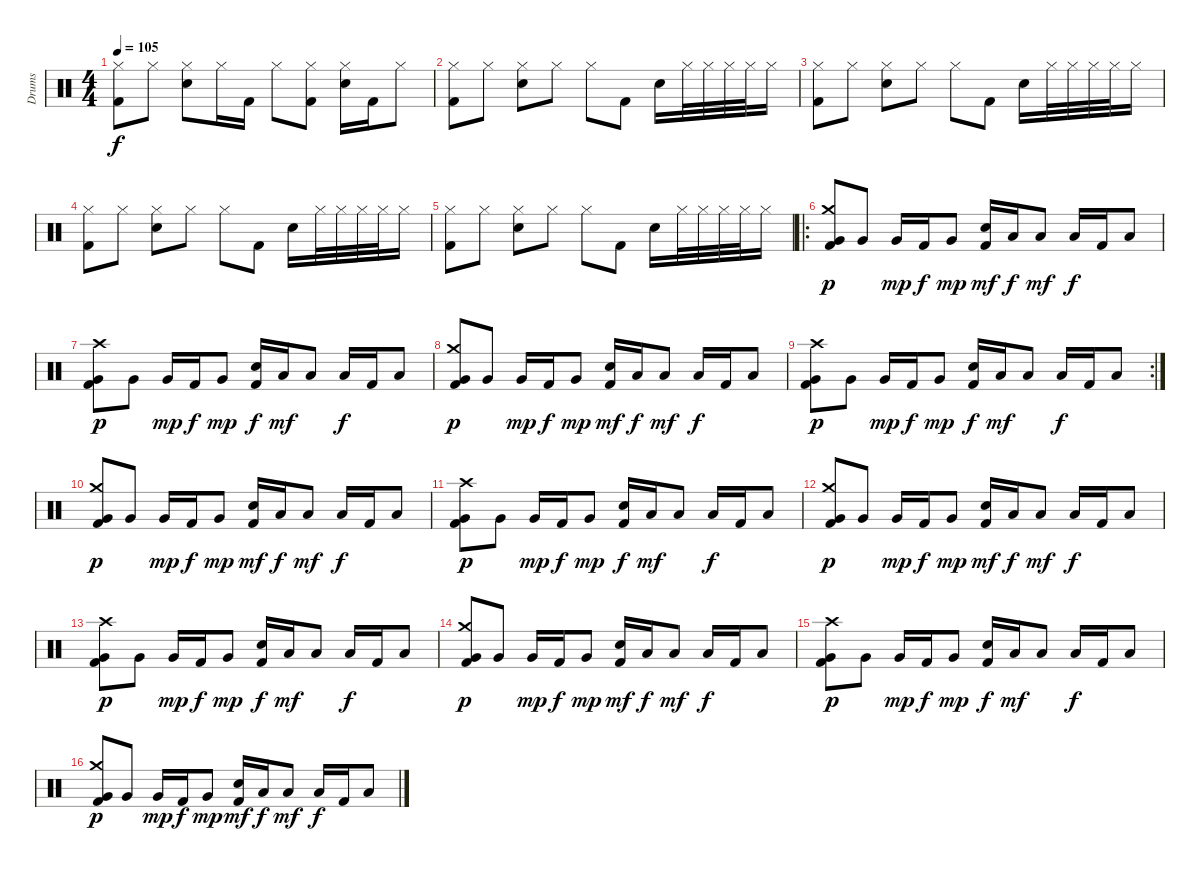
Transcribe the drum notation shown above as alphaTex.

\track ("Drums" "Drums") {instrument percussion}
\staff {score}
\articulation defaults
\ts (4 4)
\tempo 105
\clef neutral
\ks c
("Hi-Hat (closed)" "Kick (hit) 2").8{dy f} "Hi-Hat (closed)".8 ("Hi-Hat (closed)" "Electric Snare (hit)").8 "Hi-Hat (closed)".16 "Kick (hit) 2".16 "Hi-Hat (closed)".8 ("Hi-Hat (closed)" "Kick (hit) 2").8 ("Hi-Hat (closed)" "Electric Snare (hit)").16 "Kick (hit) 2".16 "Hi-Hat (closed)".8 |
("Hi-Hat (closed)" "Kick (hit) 2").8 "Hi-Hat (closed)".8 ("Hi-Hat (closed)" "Electric Snare (hit)").8 "Hi-Hat (closed)".8 "Hi-Hat (closed)".8 "Kick (hit) 2".8 "Electric Snare (hit)".16 "Hi-Hat (closed)".32 "Hi-Hat (closed)".32 "Hi-Hat (closed)".32 "Hi-Hat (closed)".32 "Hi-Hat (closed)".16 |
("Hi-Hat (closed)" "Kick (hit) 2").8 "Hi-Hat (closed)".8 ("Hi-Hat (closed)" "Electric Snare (hit)").8 "Hi-Hat (closed)".8 "Hi-Hat (closed)".8 "Kick (hit) 2".8 "Electric Snare (hit)".16 "Hi-Hat (closed)".32 "Hi-Hat (closed)".32 "Hi-Hat (closed)".32 "Hi-Hat (closed)".32 "Hi-Hat (closed)".16 |
("Hi-Hat (closed)" "Kick (hit) 2").8 "Hi-Hat (closed)".8 ("Hi-Hat (closed)" "Electric Snare (hit)").8 "Hi-Hat (closed)".8 "Hi-Hat (closed)".8 "Kick (hit) 2".8 "Electric Snare (hit)".16 "Hi-Hat (closed)".32 "Hi-Hat (closed)".32 "Hi-Hat (closed)".32 "Hi-Hat (closed)".32 "Hi-Hat (closed)".16 |
("Hi-Hat (closed)" "Kick (hit) 2").8 "Hi-Hat (closed)".8 ("Hi-Hat (closed)" "Electric Snare (hit)").8 "Hi-Hat (closed)".8 "Hi-Hat (closed)".8 "Kick (hit) 2".8 "Electric Snare (hit)".16 "Hi-Hat (closed)".32 "Hi-Hat (closed)".32 "Hi-Hat (closed)".32 "Hi-Hat (closed)".32 "Hi-Hat (closed)".16 |
\ro
("Crash medium (hit)" "Very Low Tom (hit)" "Kick (hit) 2").8{dy p} "Very Low Tom (hit)".8 "Very Low Tom (hit)".16{dy mp} "Kick (hit) 2".16{dy f} "Very Low Tom (hit)".8{dy mp} ("Electric Snare (hit)" "Kick (hit) 2").16{dy mf} "Low Tom (hit)".16{dy f} "Low Tom (hit)".8{dy mf} "Low Tom (hit)".16{dy f} "Kick (hit) 2".16 "Low Tom (hit)".8 |
("Crash high (hit)" "Very Low Tom (hit)" "Kick (hit) 2").8{dy p} "Very Low Tom (hit)".8 "Very Low Tom (hit)".16{dy mp} "Kick (hit) 2".16{dy f} "Very Low Tom (hit)".8{dy mp} ("Electric Snare (hit)" "Kick (hit) 2").16{dy f} "Low Tom (hit)".16{dy mf} "Low Tom (hit)".8 "Low Tom (hit)".16{dy f} "Kick (hit) 2".16 "Low Tom (hit)".8 |
("Crash medium (hit)" "Very Low Tom (hit)" "Kick (hit) 2").8{dy p} "Very Low Tom (hit)".8 "Very Low Tom (hit)".16{dy mp} "Kick (hit) 2".16{dy f} "Very Low Tom (hit)".8{dy mp} ("Electric Snare (hit)" "Kick (hit) 2").16{dy mf} "Low Tom (hit)".16{dy f} "Low Tom (hit)".8{dy mf} "Low Tom (hit)".16{dy f} "Kick (hit) 2".16 "Low Tom (hit)".8 |
\rc 2
("Crash high (hit)" "Very Low Tom (hit)" "Kick (hit) 2").8{dy p} "Very Low Tom (hit)".8 "Very Low Tom (hit)".16{dy mp} "Kick (hit) 2".16{dy f} "Very Low Tom (hit)".8{dy mp} ("Electric Snare (hit)" "Kick (hit) 2").16{dy f} "Low Tom (hit)".16{dy mf} "Low Tom (hit)".8 "Low Tom (hit)".16{dy f} "Kick (hit) 2".16 "Low Tom (hit)".8 |
("Crash medium (hit)" "Very Low Tom (hit)" "Kick (hit) 2").8{dy p} "Very Low Tom (hit)".8 "Very Low Tom (hit)".16{dy mp} "Kick (hit) 2".16{dy f} "Very Low Tom (hit)".8{dy mp} ("Electric Snare (hit)" "Kick (hit) 2").16{dy mf} "Low Tom (hit)".16{dy f} "Low Tom (hit)".8{dy mf} "Low Tom (hit)".16{dy f} "Kick (hit) 2".16 "Low Tom (hit)".8 |
("Crash high (hit)" "Very Low Tom (hit)" "Kick (hit) 2").8{dy p} "Very Low Tom (hit)".8 "Very Low Tom (hit)".16{dy mp} "Kick (hit) 2".16{dy f} "Very Low Tom (hit)".8{dy mp} ("Electric Snare (hit)" "Kick (hit) 2").16{dy f} "Low Tom (hit)".16{dy mf} "Low Tom (hit)".8 "Low Tom (hit)".16{dy f} "Kick (hit) 2".16 "Low Tom (hit)".8 |
("Crash medium (hit)" "Very Low Tom (hit)" "Kick (hit) 2").8{dy p} "Very Low Tom (hit)".8 "Very Low Tom (hit)".16{dy mp} "Kick (hit) 2".16{dy f} "Very Low Tom (hit)".8{dy mp} ("Electric Snare (hit)" "Kick (hit) 2").16{dy mf} "Low Tom (hit)".16{dy f} "Low Tom (hit)".8{dy mf} "Low Tom (hit)".16{dy f} "Kick (hit) 2".16 "Low Tom (hit)".8 |
("Crash high (hit)" "Very Low Tom (hit)" "Kick (hit) 2").8{dy p} "Very Low Tom (hit)".8 "Very Low Tom (hit)".16{dy mp} "Kick (hit) 2".16{dy f} "Very Low Tom (hit)".8{dy mp} ("Electric Snare (hit)" "Kick (hit) 2").16{dy f} "Low Tom (hit)".16{dy mf} "Low Tom (hit)".8 "Low Tom (hit)".16{dy f} "Kick (hit) 2".16 "Low Tom (hit)".8 |
("Crash medium (hit)" "Very Low Tom (hit)" "Kick (hit) 2").8{dy p} "Very Low Tom (hit)".8 "Very Low Tom (hit)".16{dy mp} "Kick (hit) 2".16{dy f} "Very Low Tom (hit)".8{dy mp} ("Electric Snare (hit)" "Kick (hit) 2").16{dy mf} "Low Tom (hit)".16{dy f} "Low Tom (hit)".8{dy mf} "Low Tom (hit)".16{dy f} "Kick (hit) 2".16 "Low Tom (hit)".8 |
("Crash high (hit)" "Very Low Tom (hit)" "Kick (hit) 2").8{dy p} "Very Low Tom (hit)".8 "Very Low Tom (hit)".16{dy mp} "Kick (hit) 2".16{dy f} "Very Low Tom (hit)".8{dy mp} ("Electric Snare (hit)" "Kick (hit) 2").16{dy f} "Low Tom (hit)".16{dy mf} "Low Tom (hit)".8 "Low Tom (hit)".16{dy f} "Kick (hit) 2".16 "Low Tom (hit)".8 |
("Crash medium (hit)" "Very Low Tom (hit)" "Kick (hit) 2").8{dy p} "Very Low Tom (hit)".8 "Very Low Tom (hit)".16{dy mp} "Kick (hit) 2".16{dy f} "Very Low Tom (hit)".8{dy mp} ("Electric Snare (hit)" "Kick (hit) 2").16{dy mf} "Low Tom (hit)".16{dy f} "Low Tom (hit)".8{dy mf} "Low Tom (hit)".16{dy f} "Kick (hit) 2".16 "Low Tom (hit)".8
